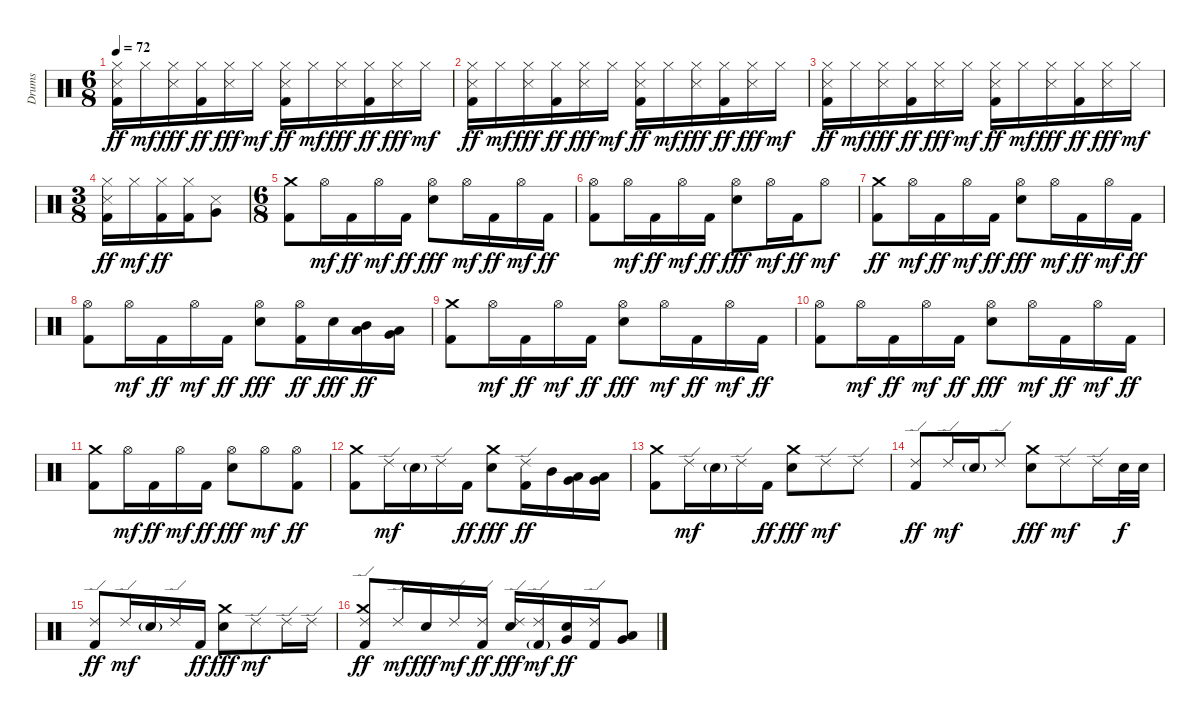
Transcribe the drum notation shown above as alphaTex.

\track ("Drums" "Drums") {instrument percussion}
\staff {score}
\articulation defaults
\ts (6 8)
\tempo 72
\clef neutral
\ks c
("Hi-Hat (closed)" "Snare (side stick) 3" "Kick (hit) 2").16{dy ff} "Hi-Hat (closed)".16{dy mf} ("Hi-Hat (closed)" "Snare (side stick) 3").16{dy fff} ("Hi-Hat (closed)" "Kick (hit) 2").16{dy ff} ("Hi-Hat (closed)" "Snare (side stick) 3").16{dy fff} "Hi-Hat (closed)".16{dy mf} ("Hi-Hat (closed)" "Snare (side stick) 3" "Kick (hit) 2").16{dy ff} "Hi-Hat (closed)".16{dy mf} ("Hi-Hat (closed)" "Snare (side stick) 3").16{dy fff} ("Hi-Hat (closed)" "Kick (hit) 2").16{dy ff} ("Hi-Hat (closed)" "Snare (side stick) 3").16{dy fff} "Hi-Hat (closed)".16{dy mf} |
("Hi-Hat (closed)" "Snare (side stick) 3" "Kick (hit) 2").16{dy ff} "Hi-Hat (closed)".16{dy mf} ("Hi-Hat (closed)" "Snare (side stick) 3").16{dy fff} ("Hi-Hat (closed)" "Kick (hit) 2").16{dy ff} ("Hi-Hat (closed)" "Snare (side stick) 3").16{dy fff} "Hi-Hat (closed)".16{dy mf} ("Hi-Hat (closed)" "Snare (side stick) 3" "Kick (hit) 2").16{dy ff} "Hi-Hat (closed)".16{dy mf} ("Hi-Hat (closed)" "Snare (side stick) 3").16{dy fff} ("Hi-Hat (closed)" "Kick (hit) 2").16{dy ff} ("Hi-Hat (closed)" "Snare (side stick) 3").16{dy fff} "Hi-Hat (closed)".16{dy mf} |
("Hi-Hat (closed)" "Snare (side stick) 3" "Kick (hit) 2").16{dy ff} "Hi-Hat (closed)".16{dy mf} ("Hi-Hat (closed)" "Snare (side stick) 3").16{dy fff} ("Hi-Hat (closed)" "Kick (hit) 2").16{dy ff} ("Hi-Hat (closed)" "Snare (side stick) 3").16{dy fff} "Hi-Hat (closed)".16{dy mf} ("Hi-Hat (closed)" "Snare (side stick) 3" "Kick (hit) 2").16{dy ff} "Hi-Hat (closed)".16{dy mf} ("Hi-Hat (closed)" "Snare (side stick) 3").16{dy fff} ("Hi-Hat (closed)" "Kick (hit) 2").16{dy ff} ("Hi-Hat (closed)" "Snare (side stick) 3").16{dy fff} "Hi-Hat (closed)".16{dy mf} |
\ts (3 8)
("Hi-Hat (closed)" "Snare (side stick) 3" "Kick (hit) 2").16{dy ff} "Hi-Hat (closed)".16{dy mf} ("Hi-Hat (closed)" "Kick (hit) 2").16{dy ff} ("Hi-Hat (closed)" "Kick (hit) 2").16 ("Snare (side stick) 3" "Very Low Tom (hit)").8 |
\ts (6 8)
("Crash medium (hit)" "Kick (hit) 2").8 "Hi-Hat (open)".16{dy mf} "Kick (hit) 2".16{dy ff} "Hi-Hat (open)".16{dy mf} "Kick (hit) 2".16{dy ff} ("Hi-Hat (open)" "Snare (hit) 2").8{dy fff} "Hi-Hat (open)".16{dy mf} "Kick (hit) 2".16{dy ff} "Hi-Hat (open)".16{dy mf} "Kick (hit) 2".16{dy ff} |
("Hi-Hat (open)" "Kick (hit) 2").8 "Hi-Hat (open)".16{dy mf} "Kick (hit) 2".16{dy ff} "Hi-Hat (open)".16{dy mf} "Kick (hit) 2".16{dy ff} ("Hi-Hat (open)" "Snare (hit) 2").8{dy fff} "Hi-Hat (open)".16{dy mf} "Kick (hit) 2".16{dy ff} "Hi-Hat (open)".8{dy mf} |
("Crash medium (hit)" "Kick (hit) 2").8{dy ff} "Hi-Hat (open)".16{dy mf} "Kick (hit) 2".16{dy ff} "Hi-Hat (open)".16{dy mf} "Kick (hit) 2".16{dy ff} ("Hi-Hat (open)" "Snare (hit) 2").8{dy fff} "Hi-Hat (open)".16{dy mf} "Kick (hit) 2".16{dy ff} "Hi-Hat (open)".16{dy mf} "Kick (hit) 2".16{dy ff} |
("Hi-Hat (open)" "Kick (hit) 2").8 "Hi-Hat (open)".16{dy mf} "Kick (hit) 2".16{dy ff} "Hi-Hat (open)".16{dy mf} "Kick (hit) 2".16{dy ff} ("Hi-Hat (open)" "Snare (hit) 2").8{dy fff} ("Hi-Hat (open)" "Kick (hit) 2").16{dy ff} "Snare (hit) 2".16{dy fff} ("Mid Tom (hit)" "Low Tom (hit)").16{dy ff} ("Low Tom (hit)" "Very Low Tom (hit)").16 |
("Crash medium (hit)" "Kick (hit) 2").8 "Hi-Hat (open)".16{dy mf} "Kick (hit) 2".16{dy ff} "Hi-Hat (open)".16{dy mf} "Kick (hit) 2".16{dy ff} ("Hi-Hat (open)" "Snare (hit) 2").8{dy fff} "Hi-Hat (open)".16{dy mf} "Kick (hit) 2".16{dy ff} "Hi-Hat (open)".16{dy mf} "Kick (hit) 2".16{dy ff} |
("Hi-Hat (open)" "Kick (hit) 2").8 "Hi-Hat (open)".16{dy mf} "Kick (hit) 2".16{dy ff} "Hi-Hat (open)".16{dy mf} "Kick (hit) 2".16{dy ff} ("Hi-Hat (open)" "Snare (hit) 2").8{dy fff} "Hi-Hat (open)".16{dy mf} "Kick (hit) 2".16{dy ff} "Hi-Hat (open)".16{dy mf} "Kick (hit) 2".16{dy ff} |
("Crash medium (hit)" "Kick (hit) 2").8 "Hi-Hat (open)".16{dy mf} "Kick (hit) 2".16{dy ff} "Hi-Hat (open)".16{dy mf} "Kick (hit) 2".16{dy ff} ("Hi-Hat (open)" "Snare (hit) 2").8{dy fff} "Hi-Hat (open)".8{dy mf} ("Hi-Hat (open)" "Kick (hit) 2").8{dy ff} |
("Crash medium (hit)" "Kick (hit) 2").8 "Ride (edge) 2".16{dy mf} "Snare (hit) 2"{g}.16 "Ride (edge) 2".16 "Kick (hit) 2".16{dy ff} ("Crash medium (hit)" "Snare (hit) 2").8{dy fff} ("Ride (edge) 2" "Kick (hit) 2").16{dy ff} "Mid Tom (hit)".16 ("Low Tom (hit)" "Very Low Tom (hit)").16 ("Low Tom (hit)" "Very Low Tom (hit)").16 |
("Crash medium (hit)" "Kick (hit) 2").8 "Ride (edge) 2".16{dy mf} "Snare (hit) 2"{g}.16 "Ride (edge) 2".16 "Kick (hit) 2".16{dy ff} ("Crash medium (hit)" "Snare (hit) 2").8{dy fff} "Ride (edge) 2".8{dy mf} "Ride (edge) 2".8 |
("Ride (edge) 2" "Kick (hit) 2").8{dy ff} "Ride (edge) 2".16{dy mf} "Snare (hit) 2"{g}.16 "Ride (edge) 2".8 ("Crash medium (hit)" "Snare (hit) 2").8{dy fff} "Ride (edge) 2".8{dy mf} "Ride (edge) 2".16 "Snare (hit) 2".32{dy f} "Snare (hit) 2".32 |
("Ride (edge) 2" "Kick (hit) 2").8{dy ff} "Ride (edge) 2".16{dy mf} "Snare (hit) 2"{g}.16 "Ride (edge) 2".16 "Kick (hit) 2".16{dy ff} ("Crash medium (hit)" "Snare (hit) 2").8{dy fff} "Ride (edge) 2".8{dy mf} "Ride (edge) 2".16 "Ride (edge) 2".16 |
("Crash medium (hit)" "Ride (edge) 2" "Kick (hit) 2").8{dy ff} "Ride (edge) 2".16{dy mf} "Snare (hit) 2".16{dy fff} "Ride (edge) 2".16{dy mf} ("Ride (edge) 2" "Kick (hit) 2").16{dy ff} ("Ride (edge) 2" "Snare (hit) 2").16{dy fff} ("Ride (edge) 2" "Kick (hit) 2"{g}).16{dy mf} ("Snare (hit) 2" "Very Low Tom (hit)").16{dy ff} ("Ride (edge) 2" "Kick (hit) 2").16 ("Low Tom (hit)" "Very Low Tom (hit)").8
